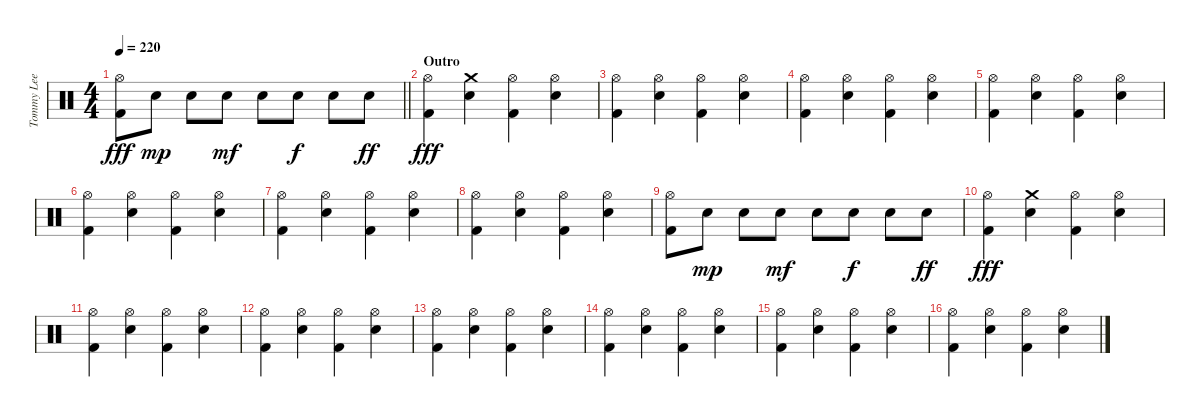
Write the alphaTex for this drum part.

\track ("Tommy Lee - Drums" "Tommy Lee ") {instrument percussion}
\staff {score}
\articulation defaults
\ts (4 4)
\tempo 220
\clef neutral
\barLineRight lightlight
\ks c
("Hi-Hat (open)" "Kick (hit) 2").8{dy fff} "Electric Snare (hit)".8{dy mp} "Electric Snare (hit)".8 "Electric Snare (hit)".8{dy mf} "Electric Snare (hit)".8 "Electric Snare (hit)".8{dy f} "Electric Snare (hit)".8 "Electric Snare (hit)".8{dy ff} |
\section ("" "Outro")
("Hi-Hat (open)" "Kick (hit) 2").4{dy fff} ("Crash medium (hit)" "Electric Snare (hit)").4 ("Hi-Hat (open)" "Kick (hit) 2").4 ("Hi-Hat (open)" "Electric Snare (hit)").4 |
("Hi-Hat (open)" "Kick (hit) 2").4 ("Hi-Hat (open)" "Electric Snare (hit)").4 ("Hi-Hat (open)" "Kick (hit) 2").4 ("Hi-Hat (open)" "Electric Snare (hit)").4 |
("Hi-Hat (open)" "Kick (hit) 2").4 ("Hi-Hat (open)" "Electric Snare (hit)").4 ("Hi-Hat (open)" "Kick (hit) 2").4 ("Hi-Hat (open)" "Electric Snare (hit)").4 |
("Hi-Hat (open)" "Kick (hit) 2").4 ("Hi-Hat (open)" "Electric Snare (hit)").4 ("Hi-Hat (open)" "Kick (hit) 2").4 ("Hi-Hat (open)" "Electric Snare (hit)").4 |
("Hi-Hat (open)" "Kick (hit) 2").4 ("Hi-Hat (open)" "Electric Snare (hit)").4 ("Hi-Hat (open)" "Kick (hit) 2").4 ("Hi-Hat (open)" "Electric Snare (hit)").4 |
("Hi-Hat (open)" "Kick (hit) 2").4 ("Hi-Hat (open)" "Electric Snare (hit)").4 ("Hi-Hat (open)" "Kick (hit) 2").4 ("Hi-Hat (open)" "Electric Snare (hit)").4 |
("Hi-Hat (open)" "Kick (hit) 2").4 ("Hi-Hat (open)" "Electric Snare (hit)").4 ("Hi-Hat (open)" "Kick (hit) 2").4 ("Hi-Hat (open)" "Electric Snare (hit)").4 |
("Hi-Hat (open)" "Kick (hit) 2").8 "Electric Snare (hit)".8{dy mp} "Electric Snare (hit)".8 "Electric Snare (hit)".8{dy mf} "Electric Snare (hit)".8 "Electric Snare (hit)".8{dy f} "Electric Snare (hit)".8 "Electric Snare (hit)".8{dy ff} |
("Hi-Hat (open)" "Kick (hit) 2").4{dy fff} ("Crash medium (hit)" "Electric Snare (hit)").4 ("Hi-Hat (open)" "Kick (hit) 2").4 ("Hi-Hat (open)" "Electric Snare (hit)").4 |
("Hi-Hat (open)" "Kick (hit) 2").4 ("Hi-Hat (open)" "Electric Snare (hit)").4 ("Hi-Hat (open)" "Kick (hit) 2").4 ("Hi-Hat (open)" "Electric Snare (hit)").4 |
("Hi-Hat (open)" "Kick (hit) 2").4 ("Hi-Hat (open)" "Electric Snare (hit)").4 ("Hi-Hat (open)" "Kick (hit) 2").4 ("Hi-Hat (open)" "Electric Snare (hit)").4 |
("Hi-Hat (open)" "Kick (hit) 2").4 ("Hi-Hat (open)" "Electric Snare (hit)").4 ("Hi-Hat (open)" "Kick (hit) 2").4 ("Hi-Hat (open)" "Electric Snare (hit)").4 |
("Hi-Hat (open)" "Kick (hit) 2").4 ("Hi-Hat (open)" "Electric Snare (hit)").4 ("Hi-Hat (open)" "Kick (hit) 2").4 ("Hi-Hat (open)" "Electric Snare (hit)").4 |
("Hi-Hat (open)" "Kick (hit) 2").4 ("Hi-Hat (open)" "Electric Snare (hit)").4 ("Hi-Hat (open)" "Kick (hit) 2").4 ("Hi-Hat (open)" "Electric Snare (hit)").4 |
("Hi-Hat (open)" "Kick (hit) 2").4 ("Hi-Hat (open)" "Electric Snare (hit)").4 ("Hi-Hat (open)" "Kick (hit) 2").4 ("Hi-Hat (open)" "Electric Snare (hit)").4
